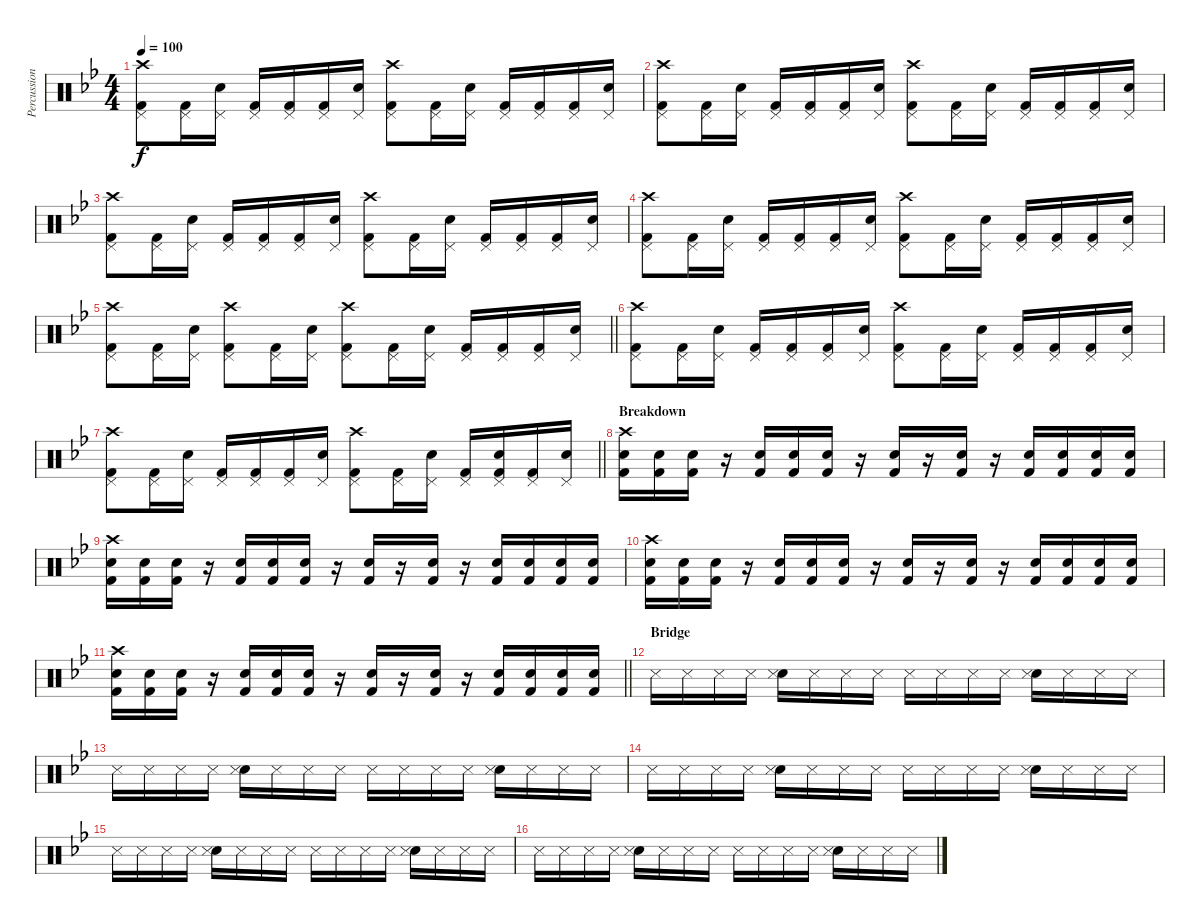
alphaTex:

\track ("Percussion" "Percussion") {instrument percussion}
\staff {score}
\articulation defaults
\ts (4 4)
\tempo 100
\clef neutral
\ks bb
("Crash high (hit)" "Pedal Hi-Hat (hit)" "Kick (hit) 2").8{dy f} ("Pedal Hi-Hat (hit)" "Kick (hit) 2").16 ("Electric Snare (hit)" "Pedal Hi-Hat (hit)").16 ("Pedal Hi-Hat (hit)" "Kick (hit) 2").16 ("Pedal Hi-Hat (hit)" "Kick (hit) 2").16 ("Pedal Hi-Hat (hit)" "Kick (hit) 2").16 ("Electric Snare (hit)" "Pedal Hi-Hat (hit)").16 ("Crash high (hit)" "Pedal Hi-Hat (hit)" "Kick (hit) 2").8 ("Pedal Hi-Hat (hit)" "Kick (hit) 2").16 ("Electric Snare (hit)" "Pedal Hi-Hat (hit)").16 ("Pedal Hi-Hat (hit)" "Kick (hit) 2").16 ("Pedal Hi-Hat (hit)" "Kick (hit) 2").16 ("Pedal Hi-Hat (hit)" "Kick (hit) 2").16 ("Electric Snare (hit)" "Pedal Hi-Hat (hit)").16 |
("Crash high (hit)" "Pedal Hi-Hat (hit)" "Kick (hit) 2").8 ("Pedal Hi-Hat (hit)" "Kick (hit) 2").16 ("Electric Snare (hit)" "Pedal Hi-Hat (hit)").16 ("Pedal Hi-Hat (hit)" "Kick (hit) 2").16 ("Pedal Hi-Hat (hit)" "Kick (hit) 2").16 ("Pedal Hi-Hat (hit)" "Kick (hit) 2").16 ("Electric Snare (hit)" "Pedal Hi-Hat (hit)").16 ("Crash high (hit)" "Pedal Hi-Hat (hit)" "Kick (hit) 2").8 ("Pedal Hi-Hat (hit)" "Kick (hit) 2").16 ("Electric Snare (hit)" "Pedal Hi-Hat (hit)").16 ("Pedal Hi-Hat (hit)" "Kick (hit) 2").16 ("Pedal Hi-Hat (hit)" "Kick (hit) 2").16 ("Pedal Hi-Hat (hit)" "Kick (hit) 2").16 ("Electric Snare (hit)" "Pedal Hi-Hat (hit)").16 |
("Crash high (hit)" "Pedal Hi-Hat (hit)" "Kick (hit) 2").8 ("Pedal Hi-Hat (hit)" "Kick (hit) 2").16 ("Electric Snare (hit)" "Pedal Hi-Hat (hit)").16 ("Pedal Hi-Hat (hit)" "Kick (hit) 2").16 ("Pedal Hi-Hat (hit)" "Kick (hit) 2").16 ("Pedal Hi-Hat (hit)" "Kick (hit) 2").16 ("Electric Snare (hit)" "Pedal Hi-Hat (hit)").16 ("Crash high (hit)" "Pedal Hi-Hat (hit)" "Kick (hit) 2").8 ("Pedal Hi-Hat (hit)" "Kick (hit) 2").16 ("Electric Snare (hit)" "Pedal Hi-Hat (hit)").16 ("Pedal Hi-Hat (hit)" "Kick (hit) 2").16 ("Pedal Hi-Hat (hit)" "Kick (hit) 2").16 ("Pedal Hi-Hat (hit)" "Kick (hit) 2").16 ("Electric Snare (hit)" "Pedal Hi-Hat (hit)").16 |
("Crash high (hit)" "Pedal Hi-Hat (hit)" "Kick (hit) 2").8 ("Pedal Hi-Hat (hit)" "Kick (hit) 2").16 ("Electric Snare (hit)" "Pedal Hi-Hat (hit)").16 ("Pedal Hi-Hat (hit)" "Kick (hit) 2").16 ("Pedal Hi-Hat (hit)" "Kick (hit) 2").16 ("Pedal Hi-Hat (hit)" "Kick (hit) 2").16 ("Electric Snare (hit)" "Pedal Hi-Hat (hit)").16 ("Crash high (hit)" "Pedal Hi-Hat (hit)" "Kick (hit) 2").8 ("Pedal Hi-Hat (hit)" "Kick (hit) 2").16 ("Electric Snare (hit)" "Pedal Hi-Hat (hit)").16 ("Pedal Hi-Hat (hit)" "Kick (hit) 2").16 ("Pedal Hi-Hat (hit)" "Kick (hit) 2").16 ("Pedal Hi-Hat (hit)" "Kick (hit) 2").16 ("Electric Snare (hit)" "Pedal Hi-Hat (hit)").16 |
\barLineRight lightlight
("Crash high (hit)" "Pedal Hi-Hat (hit)" "Kick (hit) 2").8 ("Pedal Hi-Hat (hit)" "Kick (hit) 2").16 ("Electric Snare (hit)" "Pedal Hi-Hat (hit)").16 ("Crash high (hit)" "Pedal Hi-Hat (hit)" "Kick (hit) 2").8 ("Pedal Hi-Hat (hit)" "Kick (hit) 2").16 ("Electric Snare (hit)" "Pedal Hi-Hat (hit)").16 ("Crash high (hit)" "Pedal Hi-Hat (hit)" "Kick (hit) 2").8 ("Pedal Hi-Hat (hit)" "Kick (hit) 2").16 ("Electric Snare (hit)" "Pedal Hi-Hat (hit)").16 ("Pedal Hi-Hat (hit)" "Kick (hit) 2").16 ("Pedal Hi-Hat (hit)" "Kick (hit) 2").16 ("Pedal Hi-Hat (hit)" "Kick (hit) 2").16 ("Electric Snare (hit)" "Pedal Hi-Hat (hit)").16 |
\section ("" "")
("Crash high (hit)" "Pedal Hi-Hat (hit)" "Kick (hit) 2").8 ("Pedal Hi-Hat (hit)" "Kick (hit) 2").16 ("Electric Snare (hit)" "Pedal Hi-Hat (hit)").16 ("Pedal Hi-Hat (hit)" "Kick (hit) 2").16 ("Pedal Hi-Hat (hit)" "Kick (hit) 2").16 ("Pedal Hi-Hat (hit)" "Kick (hit) 2").16 ("Electric Snare (hit)" "Pedal Hi-Hat (hit)").16 ("Crash high (hit)" "Pedal Hi-Hat (hit)" "Kick (hit) 2").8 ("Pedal Hi-Hat (hit)" "Kick (hit) 2").16 ("Electric Snare (hit)" "Pedal Hi-Hat (hit)").16 ("Pedal Hi-Hat (hit)" "Kick (hit) 2").16 ("Pedal Hi-Hat (hit)" "Kick (hit) 2").16 ("Pedal Hi-Hat (hit)" "Kick (hit) 2").16 ("Electric Snare (hit)" "Pedal Hi-Hat (hit)").16 |
\barLineRight lightlight
("Crash high (hit)" "Pedal Hi-Hat (hit)" "Kick (hit) 2").8 ("Pedal Hi-Hat (hit)" "Kick (hit) 2").16 ("Electric Snare (hit)" "Pedal Hi-Hat (hit)").16 ("Pedal Hi-Hat (hit)" "Kick (hit) 2").16 ("Pedal Hi-Hat (hit)" "Kick (hit) 2").16 ("Pedal Hi-Hat (hit)" "Kick (hit) 2").16 ("Electric Snare (hit)" "Pedal Hi-Hat (hit)").16 ("Crash high (hit)" "Pedal Hi-Hat (hit)" "Kick (hit) 2").8 ("Pedal Hi-Hat (hit)" "Kick (hit) 2").16 ("Electric Snare (hit)" "Pedal Hi-Hat (hit)").16 ("Pedal Hi-Hat (hit)" "Kick (hit) 2").16 ("Electric Snare (hit)" "Pedal Hi-Hat (hit)" "Kick (hit) 2").16 ("Pedal Hi-Hat (hit)" "Kick (hit) 2").16 ("Electric Snare (hit)" "Pedal Hi-Hat (hit)").16 |
\section ("" "Breakdown")
("Crash high (hit)" "Electric Snare (hit)" "Kick (hit) 2").16 ("Electric Snare (hit)" "Kick (hit) 2").16 ("Electric Snare (hit)" "Kick (hit) 2").16 r.16 ("Electric Snare (hit)" "Kick (hit) 2").16 ("Electric Snare (hit)" "Kick (hit) 2").16 ("Electric Snare (hit)" "Kick (hit) 2").16 r.16 ("Electric Snare (hit)" "Kick (hit) 2").16 r.16 ("Electric Snare (hit)" "Kick (hit) 2").16 r.16 ("Electric Snare (hit)" "Kick (hit) 2").16 ("Electric Snare (hit)" "Kick (hit) 2").16 ("Electric Snare (hit)" "Kick (hit) 2").16 ("Electric Snare (hit)" "Kick (hit) 2").16 |
("Crash high (hit)" "Electric Snare (hit)" "Kick (hit) 2").16 ("Electric Snare (hit)" "Kick (hit) 2").16 ("Electric Snare (hit)" "Kick (hit) 2").16 r.16 ("Electric Snare (hit)" "Kick (hit) 2").16 ("Electric Snare (hit)" "Kick (hit) 2").16 ("Electric Snare (hit)" "Kick (hit) 2").16 r.16 ("Electric Snare (hit)" "Kick (hit) 2").16 r.16 ("Electric Snare (hit)" "Kick (hit) 2").16 r.16 ("Electric Snare (hit)" "Kick (hit) 2").16 ("Electric Snare (hit)" "Kick (hit) 2").16 ("Electric Snare (hit)" "Kick (hit) 2").16 ("Electric Snare (hit)" "Kick (hit) 2").16 |
("Crash high (hit)" "Electric Snare (hit)" "Kick (hit) 2").16 ("Electric Snare (hit)" "Kick (hit) 2").16 ("Electric Snare (hit)" "Kick (hit) 2").16 r.16 ("Electric Snare (hit)" "Kick (hit) 2").16 ("Electric Snare (hit)" "Kick (hit) 2").16 ("Electric Snare (hit)" "Kick (hit) 2").16 r.16 ("Electric Snare (hit)" "Kick (hit) 2").16 r.16 ("Electric Snare (hit)" "Kick (hit) 2").16 r.16 ("Electric Snare (hit)" "Kick (hit) 2").16 ("Electric Snare (hit)" "Kick (hit) 2").16 ("Electric Snare (hit)" "Kick (hit) 2").16 ("Electric Snare (hit)" "Kick (hit) 2").16 |
\barLineRight lightlight
("Crash high (hit)" "Electric Snare (hit)" "Kick (hit) 2").16 ("Electric Snare (hit)" "Kick (hit) 2").16 ("Electric Snare (hit)" "Kick (hit) 2").16 r.16 ("Electric Snare (hit)" "Kick (hit) 2").16 ("Electric Snare (hit)" "Kick (hit) 2").16 ("Electric Snare (hit)" "Kick (hit) 2").16 r.16 ("Electric Snare (hit)" "Kick (hit) 2").16 r.16 ("Electric Snare (hit)" "Kick (hit) 2").16 r.16 ("Electric Snare (hit)" "Kick (hit) 2").16 ("Electric Snare (hit)" "Kick (hit) 2").16 ("Electric Snare (hit)" "Kick (hit) 2").16 ("Electric Snare (hit)" "Kick (hit) 2").16 |
\section ("" "Bridge")
"Snare (side stick) 3".16 "Snare (side stick) 3".16 "Snare (side stick) 3".16 "Snare (side stick) 3".16 ("Snare (hit) 2" "Snare (side stick) 3").16 "Snare (side stick) 3".16 "Snare (side stick) 3".16 "Snare (side stick) 3".16 "Snare (side stick) 3".16 "Snare (side stick) 3".16 "Snare (side stick) 3".16 "Snare (side stick) 3".16 ("Snare (hit) 2" "Snare (side stick) 3").16 "Snare (side stick) 3".16 "Snare (side stick) 3".16 "Snare (side stick) 3".16 |
"Snare (side stick) 3".16 "Snare (side stick) 3".16 "Snare (side stick) 3".16 "Snare (side stick) 3".16 ("Snare (hit) 2" "Snare (side stick) 3").16 "Snare (side stick) 3".16 "Snare (side stick) 3".16 "Snare (side stick) 3".16 "Snare (side stick) 3".16 "Snare (side stick) 3".16 "Snare (side stick) 3".16 "Snare (side stick) 3".16 ("Snare (hit) 2" "Snare (side stick) 3").16 "Snare (side stick) 3".16 "Snare (side stick) 3".16 "Snare (side stick) 3".16 |
"Snare (side stick) 3".16 "Snare (side stick) 3".16 "Snare (side stick) 3".16 "Snare (side stick) 3".16 ("Snare (hit) 2" "Snare (side stick) 3").16 "Snare (side stick) 3".16 "Snare (side stick) 3".16 "Snare (side stick) 3".16 "Snare (side stick) 3".16 "Snare (side stick) 3".16 "Snare (side stick) 3".16 "Snare (side stick) 3".16 ("Snare (hit) 2" "Snare (side stick) 3").16 "Snare (side stick) 3".16 "Snare (side stick) 3".16 "Snare (side stick) 3".16 |
"Snare (side stick) 3".16 "Snare (side stick) 3".16 "Snare (side stick) 3".16 "Snare (side stick) 3".16 ("Snare (hit) 2" "Snare (side stick) 3").16 "Snare (side stick) 3".16 "Snare (side stick) 3".16 "Snare (side stick) 3".16 "Snare (side stick) 3".16 "Snare (side stick) 3".16 "Snare (side stick) 3".16 "Snare (side stick) 3".16 ("Snare (hit) 2" "Snare (side stick) 3").16 "Snare (side stick) 3".16 "Snare (side stick) 3".16 "Snare (side stick) 3".16 |
"Snare (side stick) 3".16 "Snare (side stick) 3".16 "Snare (side stick) 3".16 "Snare (side stick) 3".16 ("Snare (hit) 2" "Snare (side stick) 3").16 "Snare (side stick) 3".16 "Snare (side stick) 3".16 "Snare (side stick) 3".16 "Snare (side stick) 3".16 "Snare (side stick) 3".16 "Snare (side stick) 3".16 "Snare (side stick) 3".16 ("Snare (hit) 2" "Snare (side stick) 3").16 "Snare (side stick) 3".16 "Snare (side stick) 3".16 "Snare (side stick) 3".16
